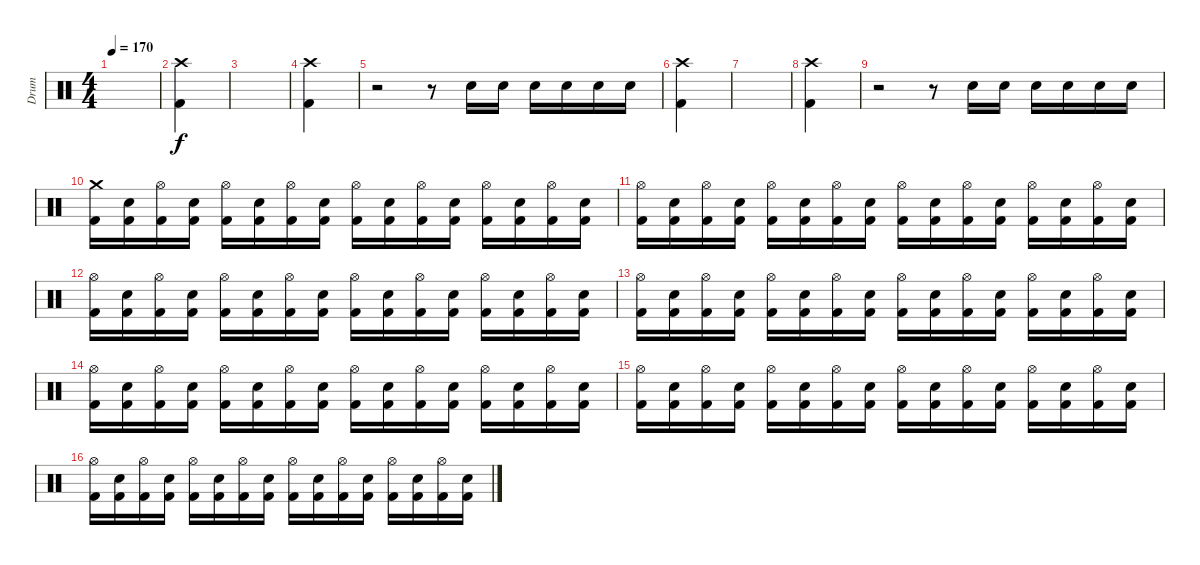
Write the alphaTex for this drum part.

\track ("Drum" "Drum") {instrument percussion}
\staff {score}
\articulation defaults
\ts (4 4)
\tempo 170
\clef neutral
\ks c
|
("Crash high (hit)" "Kick (hit) 2").4 |
|
("Crash high (hit)" "Kick (hit) 2").4 |
r.2 r.8 "Snare (hit) 2".16 "Snare (hit) 2".16 "Snare (hit) 2".16 "Snare (hit) 2".16 "Snare (hit) 2".16 "Snare (hit) 2".16 |
("Crash high (hit)" "Kick (hit) 2").4 |
|
("Crash high (hit)" "Kick (hit) 2").4 |
r.2 r.8 "Snare (hit) 2".16 "Snare (hit) 2".16 "Snare (hit) 2".16 "Snare (hit) 2".16 "Snare (hit) 2".16 "Snare (hit) 2".16 |
("Crash medium (hit)" "Kick (hit) 2").16 ("Snare (hit) 2" "Kick (hit) 2").16 ("Hi-Hat (open)" "Kick (hit) 2").16 ("Snare (hit) 2" "Kick (hit) 2").16 ("Hi-Hat (open)" "Kick (hit) 2").16 ("Snare (hit) 2" "Kick (hit) 2").16 ("Hi-Hat (open)" "Kick (hit) 2").16 ("Snare (hit) 2" "Kick (hit) 2").16 ("Hi-Hat (open)" "Kick (hit) 2").16 ("Snare (hit) 2" "Kick (hit) 2").16 ("Hi-Hat (open)" "Kick (hit) 2").16 ("Snare (hit) 2" "Kick (hit) 2").16 ("Hi-Hat (open)" "Kick (hit) 2").16 ("Snare (hit) 2" "Kick (hit) 2").16 ("Hi-Hat (open)" "Kick (hit) 2").16 ("Snare (hit) 2" "Kick (hit) 2").16 |
("Hi-Hat (open)" "Kick (hit) 2").16 ("Snare (hit) 2" "Kick (hit) 2").16 ("Hi-Hat (open)" "Kick (hit) 2").16 ("Snare (hit) 2" "Kick (hit) 2").16 ("Hi-Hat (open)" "Kick (hit) 2").16 ("Snare (hit) 2" "Kick (hit) 2").16 ("Hi-Hat (open)" "Kick (hit) 2").16 ("Snare (hit) 2" "Kick (hit) 2").16 ("Hi-Hat (open)" "Kick (hit) 2").16 ("Snare (hit) 2" "Kick (hit) 2").16 ("Hi-Hat (open)" "Kick (hit) 2").16 ("Snare (hit) 2" "Kick (hit) 2").16 ("Hi-Hat (open)" "Kick (hit) 2").16 ("Snare (hit) 2" "Kick (hit) 2").16 ("Hi-Hat (open)" "Kick (hit) 2").16 ("Snare (hit) 2" "Kick (hit) 2").16 |
("Hi-Hat (open)" "Kick (hit) 2").16 ("Snare (hit) 2" "Kick (hit) 2").16 ("Hi-Hat (open)" "Kick (hit) 2").16 ("Snare (hit) 2" "Kick (hit) 2").16 ("Hi-Hat (open)" "Kick (hit) 2").16 ("Snare (hit) 2" "Kick (hit) 2").16 ("Hi-Hat (open)" "Kick (hit) 2").16 ("Snare (hit) 2" "Kick (hit) 2").16 ("Hi-Hat (open)" "Kick (hit) 2").16 ("Snare (hit) 2" "Kick (hit) 2").16 ("Hi-Hat (open)" "Kick (hit) 2").16 ("Snare (hit) 2" "Kick (hit) 2").16 ("Hi-Hat (open)" "Kick (hit) 2").16 ("Snare (hit) 2" "Kick (hit) 2").16 ("Hi-Hat (open)" "Kick (hit) 2").16 ("Snare (hit) 2" "Kick (hit) 2").16 |
("Hi-Hat (open)" "Kick (hit) 2").16 ("Snare (hit) 2" "Kick (hit) 2").16 ("Hi-Hat (open)" "Kick (hit) 2").16 ("Snare (hit) 2" "Kick (hit) 2").16 ("Hi-Hat (open)" "Kick (hit) 2").16 ("Snare (hit) 2" "Kick (hit) 2").16 ("Hi-Hat (open)" "Kick (hit) 2").16 ("Snare (hit) 2" "Kick (hit) 2").16 ("Hi-Hat (open)" "Kick (hit) 2").16 ("Snare (hit) 2" "Kick (hit) 2").16 ("Hi-Hat (open)" "Kick (hit) 2").16 ("Snare (hit) 2" "Kick (hit) 2").16 ("Hi-Hat (open)" "Kick (hit) 2").16 ("Snare (hit) 2" "Kick (hit) 2").16 ("Hi-Hat (open)" "Kick (hit) 2").16 ("Snare (hit) 2" "Kick (hit) 2").16 |
("Hi-Hat (open)" "Kick (hit) 2").16 ("Snare (hit) 2" "Kick (hit) 2").16 ("Hi-Hat (open)" "Kick (hit) 2").16 ("Snare (hit) 2" "Kick (hit) 2").16 ("Hi-Hat (open)" "Kick (hit) 2").16 ("Snare (hit) 2" "Kick (hit) 2").16 ("Hi-Hat (open)" "Kick (hit) 2").16 ("Snare (hit) 2" "Kick (hit) 2").16 ("Hi-Hat (open)" "Kick (hit) 2").16 ("Snare (hit) 2" "Kick (hit) 2").16 ("Hi-Hat (open)" "Kick (hit) 2").16 ("Snare (hit) 2" "Kick (hit) 2").16 ("Hi-Hat (open)" "Kick (hit) 2").16 ("Snare (hit) 2" "Kick (hit) 2").16 ("Hi-Hat (open)" "Kick (hit) 2").16 ("Snare (hit) 2" "Kick (hit) 2").16 |
("Hi-Hat (open)" "Kick (hit) 2").16 ("Snare (hit) 2" "Kick (hit) 2").16 ("Hi-Hat (open)" "Kick (hit) 2").16 ("Snare (hit) 2" "Kick (hit) 2").16 ("Hi-Hat (open)" "Kick (hit) 2").16 ("Snare (hit) 2" "Kick (hit) 2").16 ("Hi-Hat (open)" "Kick (hit) 2").16 ("Snare (hit) 2" "Kick (hit) 2").16 ("Hi-Hat (open)" "Kick (hit) 2").16 ("Snare (hit) 2" "Kick (hit) 2").16 ("Hi-Hat (open)" "Kick (hit) 2").16 ("Snare (hit) 2" "Kick (hit) 2").16 ("Hi-Hat (open)" "Kick (hit) 2").16 ("Snare (hit) 2" "Kick (hit) 2").16 ("Hi-Hat (open)" "Kick (hit) 2").16 ("Snare (hit) 2" "Kick (hit) 2").16 |
("Hi-Hat (open)" "Kick (hit) 2").16 ("Snare (hit) 2" "Kick (hit) 2").16 ("Hi-Hat (open)" "Kick (hit) 2").16 ("Snare (hit) 2" "Kick (hit) 2").16 ("Hi-Hat (open)" "Kick (hit) 2").16 ("Snare (hit) 2" "Kick (hit) 2").16 ("Hi-Hat (open)" "Kick (hit) 2").16 ("Snare (hit) 2" "Kick (hit) 2").16 ("Hi-Hat (open)" "Kick (hit) 2").16 ("Snare (hit) 2" "Kick (hit) 2").16 ("Hi-Hat (open)" "Kick (hit) 2").16 ("Snare (hit) 2" "Kick (hit) 2").16 ("Hi-Hat (open)" "Kick (hit) 2").16 ("Snare (hit) 2" "Kick (hit) 2").16 ("Hi-Hat (open)" "Kick (hit) 2").16 ("Snare (hit) 2" "Kick (hit) 2").16
